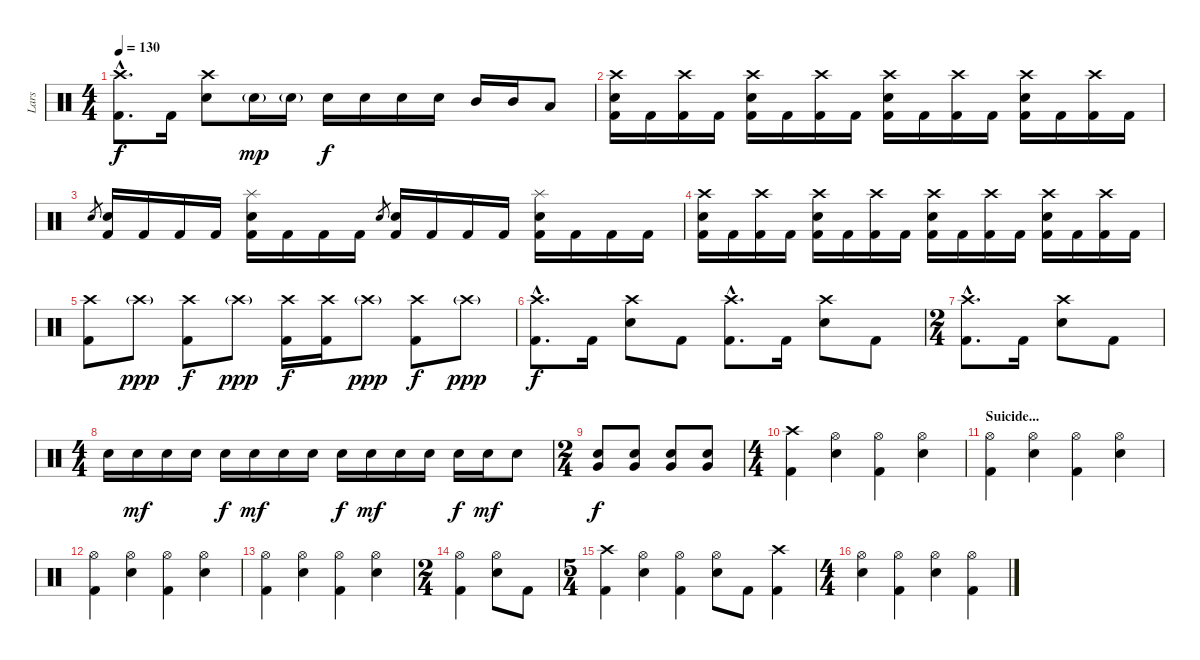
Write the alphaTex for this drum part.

\track ("Lars" "Lars") {instrument percussion}
\staff {score}
\articulation defaults
\ts (4 4)
\tempo 130
\clef neutral
\ks c
("Kick (hit) 2"{hac} "Crash high (hit)"{hac}).8{d dy f} "Kick (hit) 2".16 ("Electric Snare (hit)" "Crash high (hit)").8 "Electric Snare (hit)"{g}.16{dy mp} "Electric Snare (hit)"{g}.16 "Electric Snare (hit)".16{dy f} "Electric Snare (hit)".16 "Electric Snare (hit)".16 "Electric Snare (hit)".16 "Mid Tom (hit)".16 "Mid Tom (hit)".16 "Low Tom (hit)".8 |
\section ("" "")
("Kick (hit) 2" "Electric Snare (hit)" "Crash high (hit)").16 "Kick (hit) 2".16 ("Kick (hit) 2" "Crash high (hit)").16 "Kick (hit) 2".16 ("Kick (hit) 2" "Electric Snare (hit)" "Crash high (hit)").16 "Kick (hit) 2".16 ("Kick (hit) 2" "Crash high (hit)").16 "Kick (hit) 2".16 ("Kick (hit) 2" "Electric Snare (hit)" "Crash high (hit)").16 "Kick (hit) 2".16 ("Kick (hit) 2" "Crash high (hit)").16 "Kick (hit) 2".16 ("Kick (hit) 2" "Electric Snare (hit)" "Crash high (hit)").16 "Kick (hit) 2".16 ("Kick (hit) 2" "Crash high (hit)").16 "Kick (hit) 2".16 |
"Electric Snare (hit)".8{gr} ("Kick (hit) 2" "Electric Snare (hit)").16 "Kick (hit) 2".16 "Kick (hit) 2".16 "Kick (hit) 2".16 ("Kick (hit) 2" "Electric Snare (hit)" "Splash (hit)").16 "Kick (hit) 2".16 "Kick (hit) 2".16 "Kick (hit) 2".16 "Electric Snare (hit)".8{gr} ("Kick (hit) 2" "Electric Snare (hit)").16 "Kick (hit) 2".16 "Kick (hit) 2".16 "Kick (hit) 2".16 ("Kick (hit) 2" "Electric Snare (hit)" "Splash (hit)").16 "Kick (hit) 2".16 "Kick (hit) 2".16 "Kick (hit) 2".16 |
("Kick (hit) 2" "Electric Snare (hit)" "Crash high (hit)").16 "Kick (hit) 2".16 ("Kick (hit) 2" "Crash high (hit)").16 "Kick (hit) 2".16 ("Kick (hit) 2" "Electric Snare (hit)" "Crash high (hit)").16 "Kick (hit) 2".16 ("Kick (hit) 2" "Crash high (hit)").16 "Kick (hit) 2".16 ("Kick (hit) 2" "Electric Snare (hit)" "Crash high (hit)").16 "Kick (hit) 2".16 ("Kick (hit) 2" "Crash high (hit)").16 "Kick (hit) 2".16 ("Kick (hit) 2" "Electric Snare (hit)" "Crash high (hit)").16 "Kick (hit) 2".16 ("Kick (hit) 2" "Crash high (hit)").16 "Kick (hit) 2".16 |
("Kick (hit) 2" "Crash high (hit)").8 "Crash high (hit)"{g}.8{dy ppp} ("Kick (hit) 2" "Crash high (hit)").8{dy f} "Crash high (hit)"{g}.8{dy ppp} ("Kick (hit) 2" "Crash high (hit)").16{dy f} ("Kick (hit) 2" "Crash high (hit)").16 "Crash high (hit)"{g}.8{dy ppp} ("Kick (hit) 2" "Crash high (hit)").8{dy f} "Crash high (hit)"{g}.8{dy ppp} |
\section ("" "")
("Kick (hit) 2"{hac} "Crash high (hit)"{hac}).8{d dy f} "Kick (hit) 2".16 ("Electric Snare (hit)" "Crash high (hit)").8 "Kick (hit) 2".8 ("Kick (hit) 2"{hac} "Crash high (hit)"{hac}).8{d} "Kick (hit) 2".16 ("Electric Snare (hit)" "Crash high (hit)").8 "Kick (hit) 2".8 |
\ts (2 4)
("Kick (hit) 2"{hac} "Crash high (hit)"{hac}).8{d} "Kick (hit) 2".16 ("Electric Snare (hit)" "Crash high (hit)").8 "Kick (hit) 2".8 |
\ts (4 4)
\section ("" "")
"Electric Snare (hit)".16 "Electric Snare (hit)".16{dy mf} "Electric Snare (hit)".16 "Electric Snare (hit)".16 "Electric Snare (hit)".16{dy f} "Electric Snare (hit)".16{dy mf} "Electric Snare (hit)".16 "Electric Snare (hit)".16 "Electric Snare (hit)".16{dy f} "Electric Snare (hit)".16{dy mf} "Electric Snare (hit)".16 "Electric Snare (hit)".16 "Electric Snare (hit)".16{dy f} "Electric Snare (hit)".16{dy mf} "Electric Snare (hit)".8 |
\ts (2 4)
("Electric Snare (hit)" "Very Low Tom (hit)").8{bu 120 dy f} ("Electric Snare (hit)" "Very Low Tom (hit)").8{bu 120} ("Electric Snare (hit)" "Very Low Tom (hit)").8{bu 120} ("Electric Snare (hit)" "Very Low Tom (hit)").8{bu 120} |
\ts (4 4)
("Kick (hit) 2" "Crash high (hit)").4 ("Electric Snare (hit)" "Hi-Hat (open)").4 ("Kick (hit) 2" "Hi-Hat (open)").4 ("Electric Snare (hit)" "Hi-Hat (open)").4 |
\section ("" "Suicide...")
("Kick (hit) 2" "Hi-Hat (open)").4 ("Electric Snare (hit)" "Hi-Hat (open)").4 ("Kick (hit) 2" "Hi-Hat (open)").4 ("Electric Snare (hit)" "Hi-Hat (open)").4 |
("Kick (hit) 2" "Hi-Hat (open)").4 ("Electric Snare (hit)" "Hi-Hat (open)").4 ("Kick (hit) 2" "Hi-Hat (open)").4 ("Electric Snare (hit)" "Hi-Hat (open)").4 |
("Kick (hit) 2" "Hi-Hat (open)").4 ("Electric Snare (hit)" "Hi-Hat (open)").4 ("Kick (hit) 2" "Hi-Hat (open)").4 ("Electric Snare (hit)" "Hi-Hat (open)").4 |
\ts (2 4)
("Kick (hit) 2" "Hi-Hat (open)").4 ("Electric Snare (hit)" "Hi-Hat (open)").8 "Kick (hit) 2".8 |
\ts (5 4)
("Kick (hit) 2" "Crash high (hit)").4 ("Electric Snare (hit)" "Hi-Hat (open)").4 ("Kick (hit) 2" "Hi-Hat (open)").4 ("Electric Snare (hit)" "Hi-Hat (open)").8 "Kick (hit) 2".8 ("Kick (hit) 2" "Crash high (hit)").4 |
\ts (4 4)
("Electric Snare (hit)" "Hi-Hat (open)").4 ("Kick (hit) 2" "Hi-Hat (open)").4 ("Electric Snare (hit)" "Hi-Hat (open)").4 ("Kick (hit) 2" "Hi-Hat (open)").4
